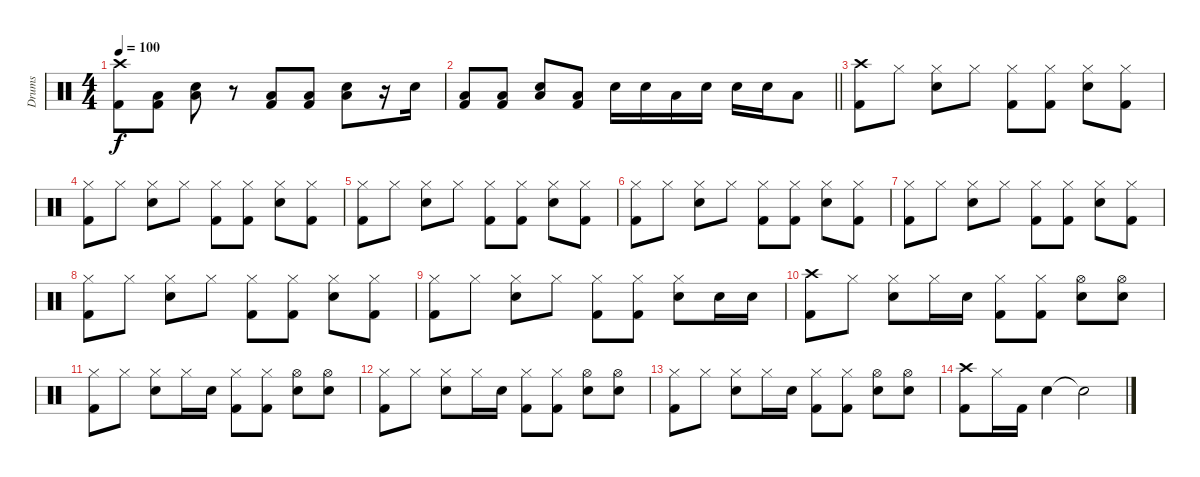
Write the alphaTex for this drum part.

\track ("Drums" "Drums") {instrument percussion}
\staff {score}
\articulation defaults
\ts (4 4)
\tempo 100
\clef neutral
\ks c
("Crash high (hit)" "Kick (hit) 2").8{dy f} ("Low Floor Tom (hit)" "Kick (hit) 2").8 ("Electric Snare (hit)" "Low Floor Tom (hit)").8 r.8 ("Low Floor Tom (hit)" "Kick (hit) 2").8 ("Low Floor Tom (hit)" "Kick (hit) 2").8 ("Electric Snare (hit)" "Low Floor Tom (hit)").8 r.16 "Electric Snare (hit)".16 |
\barLineRight lightlight
("Low Floor Tom (hit)" "Kick (hit) 2").8 ("Low Floor Tom (hit)" "Kick (hit) 2").8 ("Electric Snare (hit)" "Low Floor Tom (hit)").8 ("Low Floor Tom (hit)" "Kick (hit) 2").8 "Electric Snare (hit)".16 "Electric Snare (hit)".16 "Low Floor Tom (hit)".16 "Electric Snare (hit)".16 "Electric Snare (hit)".16 "Electric Snare (hit)".16 "Low Floor Tom (hit)".8 |
("Crash high (hit)" "Kick (hit) 2").8 "Hi-Hat (closed)".8 ("Hi-Hat (closed)" "Electric Snare (hit)").8 "Hi-Hat (closed)".8 ("Hi-Hat (closed)" "Kick (hit) 2").8 ("Hi-Hat (closed)" "Kick (hit) 2").8 ("Hi-Hat (closed)" "Electric Snare (hit)").8 ("Hi-Hat (closed)" "Kick (hit) 2").8 |
("Hi-Hat (closed)" "Kick (hit) 2").8 "Hi-Hat (closed)".8 ("Hi-Hat (closed)" "Electric Snare (hit)").8 "Hi-Hat (closed)".8 ("Hi-Hat (closed)" "Kick (hit) 2").8 ("Hi-Hat (closed)" "Kick (hit) 2").8 ("Hi-Hat (closed)" "Electric Snare (hit)").8 ("Hi-Hat (closed)" "Kick (hit) 2").8 |
("Hi-Hat (closed)" "Kick (hit) 2").8 "Hi-Hat (closed)".8 ("Hi-Hat (closed)" "Electric Snare (hit)").8 "Hi-Hat (closed)".8 ("Hi-Hat (closed)" "Kick (hit) 2").8 ("Hi-Hat (closed)" "Kick (hit) 2").8 ("Hi-Hat (closed)" "Electric Snare (hit)").8 ("Hi-Hat (closed)" "Kick (hit) 2").8 |
("Hi-Hat (closed)" "Kick (hit) 2").8 "Hi-Hat (closed)".8 ("Hi-Hat (closed)" "Electric Snare (hit)").8 "Hi-Hat (closed)".8 ("Hi-Hat (closed)" "Kick (hit) 2").8 ("Hi-Hat (closed)" "Kick (hit) 2").8 ("Hi-Hat (closed)" "Electric Snare (hit)").8 ("Hi-Hat (closed)" "Kick (hit) 2").8 |
("Hi-Hat (closed)" "Kick (hit) 2").8 "Hi-Hat (closed)".8 ("Hi-Hat (closed)" "Electric Snare (hit)").8 "Hi-Hat (closed)".8 ("Hi-Hat (closed)" "Kick (hit) 2").8 ("Hi-Hat (closed)" "Kick (hit) 2").8 ("Hi-Hat (closed)" "Electric Snare (hit)").8 ("Hi-Hat (closed)" "Kick (hit) 2").8 |
("Hi-Hat (closed)" "Kick (hit) 2").8 "Hi-Hat (closed)".8 ("Hi-Hat (closed)" "Electric Snare (hit)").8 "Hi-Hat (closed)".8 ("Hi-Hat (closed)" "Kick (hit) 2").8 ("Hi-Hat (closed)" "Kick (hit) 2").8 ("Hi-Hat (closed)" "Electric Snare (hit)").8 ("Hi-Hat (closed)" "Kick (hit) 2").8 |
("Hi-Hat (closed)" "Kick (hit) 2").8 "Hi-Hat (closed)".8 ("Hi-Hat (closed)" "Electric Snare (hit)").8 "Hi-Hat (closed)".8 ("Hi-Hat (closed)" "Kick (hit) 2").8 ("Hi-Hat (closed)" "Kick (hit) 2").8 ("Hi-Hat (closed)" "Electric Snare (hit)").8 "Electric Snare (hit)".16 "Electric Snare (hit)".16 |
("Crash high (hit)" "Kick (hit) 2").8 "Hi-Hat (closed)".8 ("Hi-Hat (closed)" "Electric Snare (hit)").8 "Hi-Hat (closed)".16 "Electric Snare (hit)".16 ("Hi-Hat (closed)" "Kick (hit) 2").8 ("Hi-Hat (closed)" "Kick (hit) 2").8 ("Hi-Hat (open)" "Electric Snare (hit)").8 ("Hi-Hat (open)" "Electric Snare (hit)").8 |
("Hi-Hat (closed)" "Kick (hit) 2").8 "Hi-Hat (closed)".8 ("Hi-Hat (closed)" "Electric Snare (hit)").8 "Hi-Hat (closed)".16 "Electric Snare (hit)".16 ("Hi-Hat (closed)" "Kick (hit) 2").8 ("Hi-Hat (closed)" "Kick (hit) 2").8 ("Hi-Hat (open)" "Electric Snare (hit)").8 ("Hi-Hat (open)" "Electric Snare (hit)").8 |
("Hi-Hat (closed)" "Kick (hit) 2").8 "Hi-Hat (closed)".8 ("Hi-Hat (closed)" "Electric Snare (hit)").8 "Hi-Hat (closed)".16 "Electric Snare (hit)".16 ("Hi-Hat (closed)" "Kick (hit) 2").8 ("Hi-Hat (closed)" "Kick (hit) 2").8 ("Hi-Hat (open)" "Electric Snare (hit)").8 ("Hi-Hat (open)" "Electric Snare (hit)").8 |
("Hi-Hat (closed)" "Kick (hit) 2").8 "Hi-Hat (closed)".8 ("Hi-Hat (closed)" "Electric Snare (hit)").8 "Hi-Hat (closed)".16 "Electric Snare (hit)".16 ("Hi-Hat (closed)" "Kick (hit) 2").8 ("Hi-Hat (closed)" "Kick (hit) 2").8 ("Hi-Hat (open)" "Electric Snare (hit)").8 ("Hi-Hat (open)" "Electric Snare (hit)").8 |
("Crash high (hit)" "Kick (hit) 2").8 "Hi-Hat (closed)".16 "Kick (hit) 2".16 "Electric Snare (hit)".4 "Snare (hit)"{t}.2
